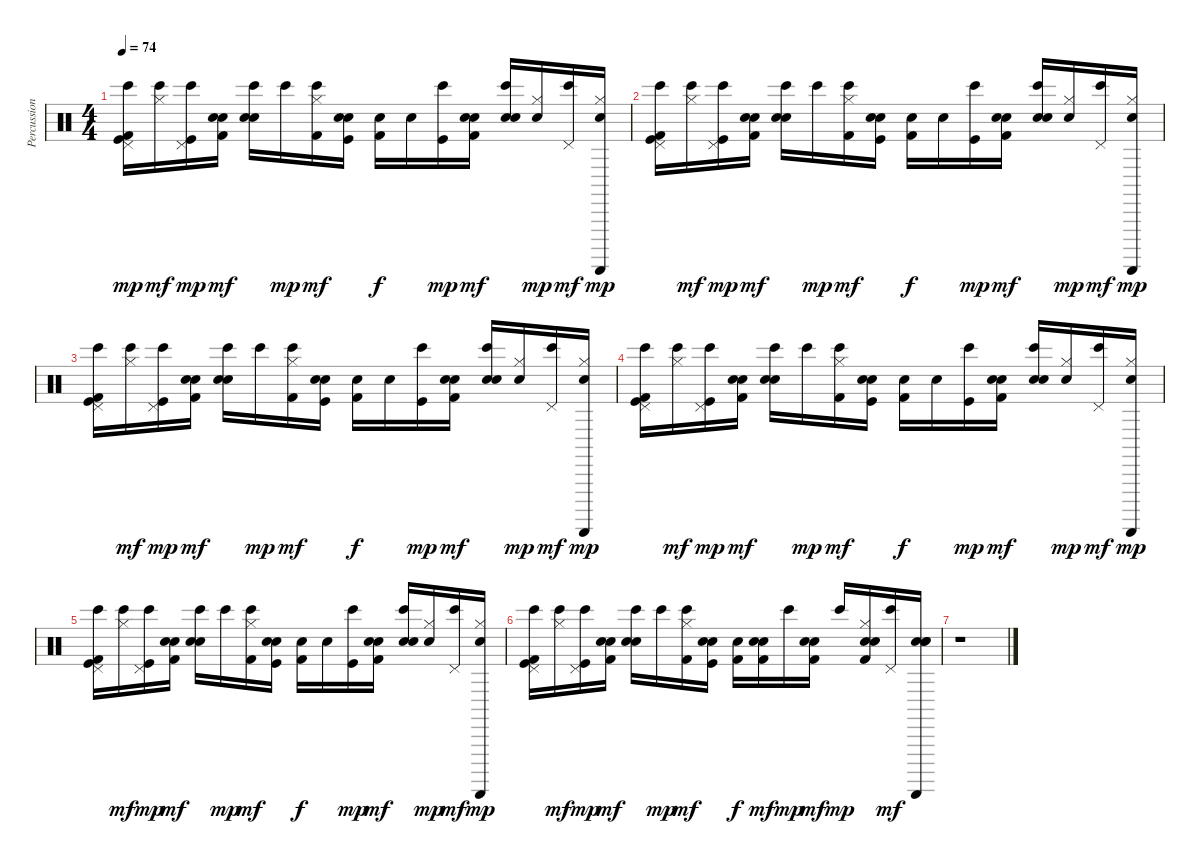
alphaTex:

\track ("Percussion" "Percussion") {instrument percussion}
\staff {score}
\articulation defaults
\ts (4 4)
\tempo 74
\clef neutral
\ks c
("Bongo High (hit)" "Pedal Hi-Hat (hit)" "Kick (hit) 2" "Kick (hit)").16{dy mp} ("Bongo High (hit)" "Hi-Hat (closed)").16{dy mf} ("Bongo High (hit)" "Pedal Hi-Hat (hit)" "Kick (hit)").16{dy mp} ("Snare (hit)" "Electric Snare (hit)" "Kick (hit) 2").16{dy mf} ("Bongo High (hit)" "Electric Snare (hit)" "Snare (hit) 2").16 "Bongo High (hit)".16{dy mp} ("Bongo High (hit)" "Hi-Hat (closed)" "Kick (hit) 2").16{dy mf} ("Snare (hit)" "Electric Snare (hit)" "Kick (hit)").16 ("Snare (hit)" "Kick (hit) 2").16{dy f} "Snare (hit)".16 ("Bongo High (hit)" "Kick (hit)").16{dy mp} ("Snare (hit)" "Electric Snare (hit)" "Kick (hit) 2").16{dy mf} ("Bongo High (hit)" "Electric Snare (hit)" "Snare (hit) 2").16 ("Snare (hit)" "Hi-Hat (closed)").16{dy mp} ("Bongo High (hit)" "Pedal Hi-Hat (hit)").16{dy mf} ("Snare (hit)" "Guiro (scrap-return)" "Hi-Hat (closed)").16{dy mp} |
("Bongo High (hit)" "Pedal Hi-Hat (hit)" "Kick (hit) 2" "Kick (hit)").16 ("Bongo High (hit)" "Hi-Hat (closed)").16{dy mf} ("Bongo High (hit)" "Pedal Hi-Hat (hit)" "Kick (hit)").16{dy mp} ("Snare (hit)" "Electric Snare (hit)" "Kick (hit) 2").16{dy mf} ("Bongo High (hit)" "Electric Snare (hit)" "Snare (hit) 2").16 "Bongo High (hit)".16{dy mp} ("Bongo High (hit)" "Hi-Hat (closed)" "Kick (hit) 2").16{dy mf} ("Snare (hit)" "Electric Snare (hit)" "Kick (hit)").16 ("Snare (hit)" "Kick (hit) 2").16{dy f} "Snare (hit)".16 ("Bongo High (hit)" "Kick (hit)").16{dy mp} ("Snare (hit)" "Electric Snare (hit)" "Kick (hit) 2").16{dy mf} ("Bongo High (hit)" "Electric Snare (hit)" "Snare (hit) 2").16 ("Snare (hit)" "Hi-Hat (closed)").16{dy mp} ("Bongo High (hit)" "Pedal Hi-Hat (hit)").16{dy mf} ("Snare (hit)" "Guiro (scrap-return)" "Hi-Hat (closed)").16{dy mp} |
("Bongo High (hit)" "Pedal Hi-Hat (hit)" "Kick (hit) 2" "Kick (hit)").16 ("Bongo High (hit)" "Hi-Hat (closed)").16{dy mf} ("Bongo High (hit)" "Pedal Hi-Hat (hit)" "Kick (hit)").16{dy mp} ("Snare (hit)" "Electric Snare (hit)" "Kick (hit) 2").16{dy mf} ("Bongo High (hit)" "Electric Snare (hit)" "Snare (hit) 2").16 "Bongo High (hit)".16{dy mp} ("Bongo High (hit)" "Hi-Hat (closed)" "Kick (hit) 2").16{dy mf} ("Snare (hit)" "Electric Snare (hit)" "Kick (hit)").16 ("Snare (hit)" "Kick (hit) 2").16{dy f} "Snare (hit)".16 ("Bongo High (hit)" "Kick (hit)").16{dy mp} ("Snare (hit)" "Electric Snare (hit)" "Kick (hit) 2").16{dy mf} ("Bongo High (hit)" "Electric Snare (hit)" "Snare (hit) 2").16 ("Snare (hit)" "Hi-Hat (closed)").16{dy mp} ("Bongo High (hit)" "Pedal Hi-Hat (hit)").16{dy mf} ("Snare (hit)" "Guiro (scrap-return)" "Hi-Hat (closed)").16{dy mp} |
("Bongo High (hit)" "Pedal Hi-Hat (hit)" "Kick (hit) 2" "Kick (hit)").16 ("Bongo High (hit)" "Hi-Hat (closed)").16{dy mf} ("Bongo High (hit)" "Pedal Hi-Hat (hit)" "Kick (hit)").16{dy mp} ("Snare (hit)" "Electric Snare (hit)" "Kick (hit) 2").16{dy mf} ("Bongo High (hit)" "Electric Snare (hit)" "Snare (hit) 2").16 "Bongo High (hit)".16{dy mp} ("Bongo High (hit)" "Hi-Hat (closed)" "Kick (hit) 2").16{dy mf} ("Snare (hit)" "Electric Snare (hit)" "Kick (hit)").16 ("Snare (hit)" "Kick (hit) 2").16{dy f} "Snare (hit)".16 ("Bongo High (hit)" "Kick (hit)").16{dy mp} ("Snare (hit)" "Electric Snare (hit)" "Kick (hit) 2").16{dy mf} ("Bongo High (hit)" "Electric Snare (hit)" "Snare (hit) 2").16 ("Snare (hit)" "Hi-Hat (closed)").16{dy mp} ("Bongo High (hit)" "Pedal Hi-Hat (hit)").16{dy mf} ("Snare (hit)" "Guiro (scrap-return)" "Hi-Hat (closed)").16{dy mp} |
("Bongo High (hit)" "Pedal Hi-Hat (hit)" "Kick (hit) 2" "Kick (hit)").16 ("Bongo High (hit)" "Hi-Hat (closed)").16{dy mf} ("Bongo High (hit)" "Pedal Hi-Hat (hit)" "Kick (hit)").16{dy mp} ("Snare (hit)" "Electric Snare (hit)" "Kick (hit) 2").16{dy mf} ("Bongo High (hit)" "Electric Snare (hit)" "Snare (hit) 2").16 "Bongo High (hit)".16{dy mp} ("Bongo High (hit)" "Hi-Hat (closed)" "Kick (hit) 2").16{dy mf} ("Snare (hit)" "Electric Snare (hit)" "Kick (hit)").16 ("Snare (hit)" "Kick (hit) 2").16{dy f} "Snare (hit)".16 ("Bongo High (hit)" "Kick (hit)").16{dy mp} ("Snare (hit)" "Electric Snare (hit)" "Kick (hit) 2").16{dy mf} ("Bongo High (hit)" "Electric Snare (hit)" "Snare (hit) 2").16 ("Snare (hit)" "Hi-Hat (closed)").16{dy mp} ("Bongo High (hit)" "Pedal Hi-Hat (hit)").16{dy mf} ("Snare (hit)" "Guiro (scrap-return)" "Hi-Hat (closed)").16{dy mp} |
("Bongo High (hit)" "Pedal Hi-Hat (hit)" "Kick (hit) 2" "Kick (hit)").16 ("Bongo High (hit)" "Hi-Hat (closed)").16{dy mf} ("Bongo High (hit)" "Pedal Hi-Hat (hit)" "Kick (hit)").16{dy mp} ("Snare (hit)" "Electric Snare (hit)" "Kick (hit) 2").16{dy mf} ("Bongo High (hit)" "Electric Snare (hit)" "Snare (hit) 2").16 "Bongo High (hit)".16{dy mp} ("Bongo High (hit)" "Hi-Hat (closed)" "Kick (hit) 2").16{dy mf} ("Snare (hit)" "Electric Snare (hit)" "Kick (hit)").16 ("Snare (hit)" "Kick (hit) 2").16{dy f} ("Snare (hit)" "Electric Snare (hit)" "Kick (hit) 2").16{dy mf} "Bongo High (hit)".16{dy mp} ("Snare (hit)" "Electric Snare (hit)" "Kick (hit) 2").16{dy mf} "Bongo High (hit)".16{dy mp} ("Snare (hit)" "Hi-Hat (closed)" "Electric Snare (hit)" "Kick (hit) 2").16 ("Bongo High (hit)" "Pedal Hi-Hat (hit)").16{dy mf} ("Snare (hit)" "Guiro (scrap-return)" "Electric Snare (hit)" "Snare (hit) 2").16 |
r.1
